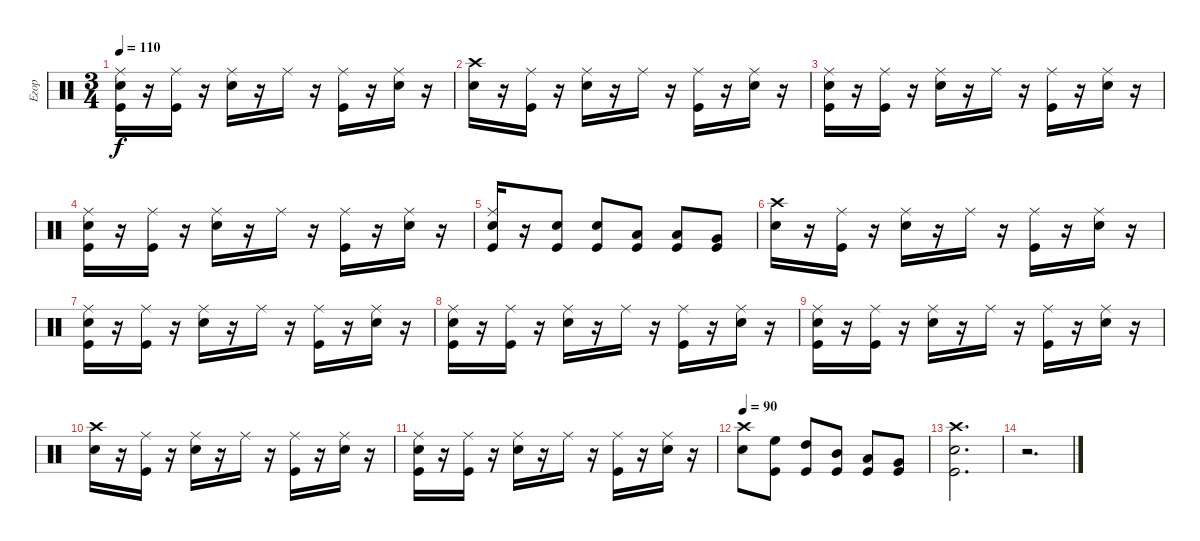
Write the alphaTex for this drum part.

\track ("Егор" "Егор") {instrument percussion}
\staff {score}
\articulation defaults
\ts (3 4)
\tempo 110
\clef neutral
\ks c
("Kick (hit)" "Ride (middle)" "Snare (hit) 2").16{dy f} r.16 ("Ride (middle)" "Kick (hit)").16 r.16 ("Snare (hit) 2" "Ride (middle)").16 r.16 "Ride (middle)".16 r.16 ("Ride (middle)" "Kick (hit)").16 r.16 ("Ride (middle)" "Snare (hit) 2").16 r.16 |
("Snare (hit) 2" "Crash high (hit)").16 r.16 ("Ride (middle)" "Kick (hit)").16 r.16 ("Snare (hit) 2" "Ride (middle)").16 r.16 "Ride (middle)".16 r.16 ("Ride (middle)" "Kick (hit)").16 r.16 ("Ride (middle)" "Snare (hit) 2").16 r.16 |
("Kick (hit)" "Ride (middle)" "Snare (hit) 2").16 r.16 ("Ride (middle)" "Kick (hit)").16 r.16 ("Snare (hit) 2" "Ride (middle)").16 r.16 "Ride (middle)".16 r.16 ("Ride (middle)" "Kick (hit)").16 r.16 ("Ride (middle)" "Snare (hit) 2").16 r.16 |
("Kick (hit)" "Ride (middle)" "Snare (hit) 2").16 r.16 ("Ride (middle)" "Kick (hit)").16 r.16 ("Snare (hit) 2" "Ride (middle)").16 r.16 "Ride (middle)".16 r.16 ("Ride (middle)" "Kick (hit)").16 r.16 ("Ride (middle)" "Snare (hit) 2").16 r.16 |
("Kick (hit)" "Ride (middle)" "Snare (hit) 2").16 r.16 ("Snare (hit) 2" "Kick (hit)").8 ("Snare (hit) 2" "Kick (hit)").8 ("Low Tom (hit)" "Kick (hit)").8 ("Low Tom (hit)" "Kick (hit)").8 ("Very Low Tom (hit)" "Kick (hit)").8 |
("Snare (hit) 2" "Crash high (hit)").16 r.16 ("Ride (middle)" "Kick (hit)").16 r.16 ("Snare (hit) 2" "Ride (middle)").16 r.16 "Ride (middle)".16 r.16 ("Ride (middle)" "Kick (hit)").16 r.16 ("Ride (middle)" "Snare (hit) 2").16 r.16 |
("Kick (hit)" "Ride (middle)" "Snare (hit) 2").16 r.16 ("Ride (middle)" "Kick (hit)").16 r.16 ("Snare (hit) 2" "Ride (middle)").16 r.16 "Ride (middle)".16 r.16 ("Ride (middle)" "Kick (hit)").16 r.16 ("Ride (middle)" "Snare (hit) 2").16 r.16 |
("Kick (hit)" "Ride (middle)" "Snare (hit) 2").16 r.16 ("Ride (middle)" "Kick (hit)").16 r.16 ("Snare (hit) 2" "Ride (middle)").16 r.16 "Ride (middle)".16 r.16 ("Ride (middle)" "Kick (hit)").16 r.16 ("Ride (middle)" "Snare (hit) 2").16 r.16 |
("Kick (hit)" "Ride (middle)" "Snare (hit) 2").16 r.16 ("Ride (middle)" "Kick (hit)").16 r.16 ("Snare (hit) 2" "Ride (middle)").16 r.16 "Ride (middle)".16 r.16 ("Ride (middle)" "Kick (hit)").16 r.16 ("Ride (middle)" "Snare (hit) 2").16 r.16 |
("Snare (hit) 2" "Crash high (hit)").16 r.16 ("Ride (middle)" "Kick (hit)").16 r.16 ("Snare (hit) 2" "Ride (middle)").16 r.16 "Ride (middle)".16 r.16 ("Ride (middle)" "Kick (hit)").16 r.16 ("Ride (middle)" "Snare (hit) 2").16 r.16 |
("Kick (hit)" "Ride (middle)" "Snare (hit) 2").16 r.16 ("Ride (middle)" "Kick (hit)").16 r.16 ("Snare (hit) 2" "Ride (middle)").16 r.16 "Ride (middle)".16 r.16 ("Ride (middle)" "Kick (hit)").16 r.16 ("Ride (middle)" "Snare (hit) 2").16 r.16 |
\tempo 90
("Snare (hit) 2" "Crash high (hit)").8 ("High Floor Tom (hit)" "Kick (hit)").8 ("High Tom (hit)" "Kick (hit)").8 ("Mid Tom (hit)" "Kick (hit)").8 ("Low Tom (hit)" "Kick (hit)").8 ("Very Low Tom (hit)" "Kick (hit)").8 |
("Snare (hit) 2" "Crash high (hit)" "Kick (hit)").2{d} |
r.2{d}
